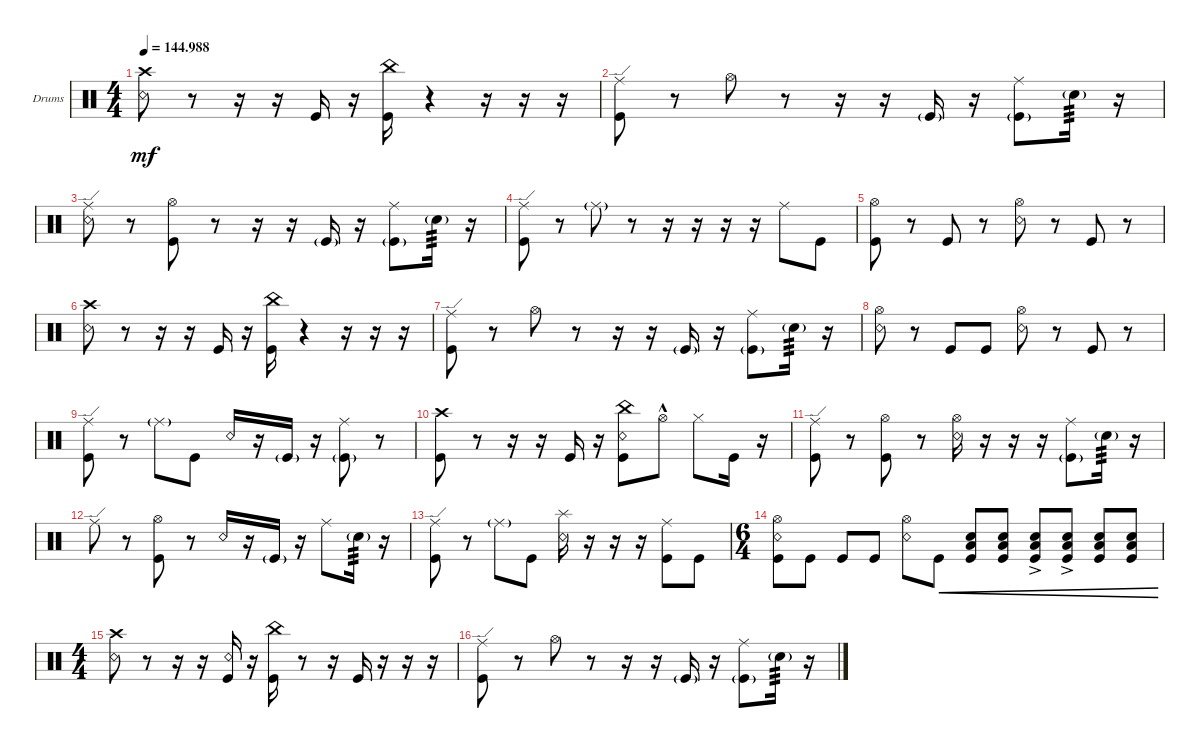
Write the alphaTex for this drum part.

\defaultSystemsLayout 4
\bracketExtendMode groupsimilarinstruments
\firstSystemTrackNameOrientation horizontal
\otherSystemsTrackNameOrientation horizontal
\track ("Drumkit" "Drums") {instrument percussion}
\staff {score}
\articulation defaults
\ts (4 4)
\tempo
144.988
\accidentals auto
\clef neutral
\ottava regular
\simile none
\ks c
("Snare (rim shot)" "Crash high (hit)").8{dy mf} r.8 r.16 r.16 "Kick (hit)".16 r.16 ("Kick (hit)" "China (hit)").16 r.4 r.16 r.16 r.16 |
("Kick (hit)" "Ride (edge)").8 r.8 "Hi-Hat (open)".8 r.8 r.16 r.16 "Kick (hit)"{g}.16 r.16 ("Ride (middle)" "Kick (hit)"{g}).8 "Snare (hit) 2"{g}.16{tp 3} r.16 |
("Ride (edge)" "Snare (rim shot)").8 r.8 ("Hi-Hat (open)" "Kick (hit)").8 r.8 r.16 r.16 "Kick (hit)"{g}.16 r.16 ("Ride (middle)" "Kick (hit)"{g}).8 "Snare (hit) 2"{g}.16{tp 3} r.16 |
("Kick (hit)" "Ride (edge)").8 r.8 "Ride (middle)"{g}.8 r.8 r.16 r.16 r.16 r.16 "Ride (middle)".8 "Kick (hit)".8 |
("Kick (hit)" "Hi-Hat (open)").8 r.8 "Kick (hit)".8 r.8 ("Snare (rim shot)" "Hi-Hat (open)").8 r.8 "Kick (hit)".8 r.8 |
("Snare (rim shot)" "Crash high (hit)").8 r.8 r.16 r.16 "Kick (hit)".16 r.16 ("Kick (hit)" "China (hit)").16 r.4 r.16 r.16 r.16 |
("Kick (hit)" "Ride (edge)").8 r.8 "Hi-Hat (open)".8 r.8 r.16 r.16 "Kick (hit)"{g}.16 r.16 ("Ride (middle)" "Kick (hit)"{g}).8 "Snare (hit) 2"{g}.16{tp 3} r.16 |
("Snare (rim shot)" "Hi-Hat (open)").8 r.8 "Kick (hit)".8 "Kick (hit)".8 ("Snare (rim shot)" "Hi-Hat (open)").8 r.8 "Kick (hit)".8 r.8 |
("Kick (hit)" "Ride (edge)").8 r.8 "Ride (middle)"{g}.8 "Kick (hit)".8 "Snare (rim shot)".16 r.16 "Kick (hit)"{g}.16 r.16 ("Ride (middle)" "Kick (hit)"{g}).8 r.8 |
("Crash high (hit)" "Kick (hit)").8 r.8 r.16 r.16 "Kick (hit)".16 r.16 ("Kick (hit)" "China (hit)" "Snare (rim shot)").8 "Hi-Hat (open)"{hac}.8 "Hi-Hat (closed)".8 "Kick (hit)".16 r.16 |
("Kick (hit)" "Ride (edge)").8 r.8 ("Hi-Hat (open)" "Kick (hit)").8 r.8 ("Snare (rim shot)" "Hi-Hat (open)").16 r.16 r.16 r.16 ("Ride (middle)" "Kick (hit)"{g}).8 "Snare (hit) 2"{g}.16{tp 3} r.16 |
"Ride (edge)".8 r.8 ("Hi-Hat (open)" "Kick (hit)").8 r.8 "Snare (rim shot)".16 r.16 "Kick (hit)"{g}.16 r.16 "Ride (middle)".8 "Snare (hit) 2"{g}.16{tp 3} r.16 |
("Kick (hit)" "Ride (edge)").8 r.8 "Ride (middle)"{g}.8 "Kick (hit)".8 ("Snare (rim shot)" "Splash (hit)").16 r.16 r.16 r.16 ("Ride (middle)" "Kick (hit)").8 "Kick (hit)".8 |
\ts (6 4)
("Kick (hit)" "Hi-Hat (open)" "Snare (rim shot)").8 "Kick (hit)".8 "Kick (hit)".8 "Kick (hit)".8 ("Snare (rim shot)" "Hi-Hat (open)").8 "Kick (hit)".8{cre} ("Kick (hit)" "Low Tom (hit)" "Snare (hit) 2").8{cre} ("Kick (hit)" "Low Tom (hit)" "Snare (hit) 2").8{cre} ("Kick (hit)"{ac} "Low Tom (hit)"{ac} "Snare (hit) 2"{ac}).8{cre} ("Kick (hit)"{ac} "Low Tom (hit)"{ac} "Snare (hit) 2"{ac}).8{cre} ("Kick (hit)" "Snare (hit) 2" "Low Tom (hit)").8{cre} ("Kick (hit)" "Low Tom (hit)" "Snare (hit) 2").8{cre} |
\ts (4 4)
("Snare (rim shot)" "Crash high (hit)").8 r.8 r.16 r.16 ("Kick (hit)" "Snare (rim shot)").16 r.16 ("Kick (hit)" "China (hit)").16 r.8 r.16 "Kick (hit)".16 r.16 r.16 r.16 |
("Kick (hit)" "Ride (edge)").8 r.8 "Hi-Hat (open)".8 r.8 r.16 r.16 "Kick (hit)"{g}.16 r.16 ("Ride (middle)" "Kick (hit)"{g}).8 "Snare (hit) 2"{g}.16{tp 3} r.16
